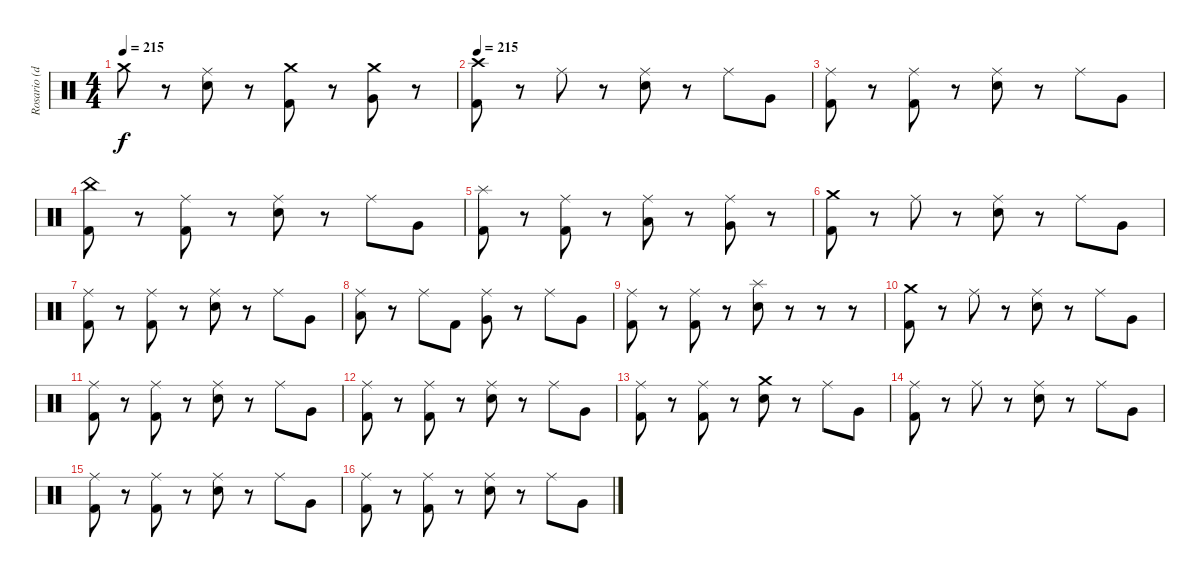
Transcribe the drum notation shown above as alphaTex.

\track ("Rosario (drum)" "Rosario (d") {instrument percussion}
\staff {score}
\articulation defaults
\ts (4 4)
\tempo 215
\clef neutral
\ks c "Crash medium (hit)".8{dy f}
r.8 ("Ride (middle)" "Electric Snare (hit)").8 r.8 ("Crash medium (hit)" "Kick (hit) 2").8 r.8 ("Crash medium (hit)" "Very Low Tom (hit)").8 r.8 |
\tempo 215
("Crash high (hit)" "Kick (hit) 2").8 r.8 "Ride (middle)".8 r.8 ("Ride (middle)" "Electric Snare (hit)").8 r.8 "Ride (middle)".8 "Very Low Tom (hit)".8 |
("Ride (middle)" "Kick (hit) 2").8 r.8 ("Ride (middle)" "Kick (hit) 2").8 r.8 ("Ride (middle)" "Electric Snare (hit)").8 r.8 "Ride (middle)".8 "Very Low Tom (hit)".8 |
("China (hit)" "Kick (hit) 2").8 r.8 ("Ride (middle)" "Kick (hit) 2").8 r.8 ("Ride (middle)" "Electric Snare (hit)").8 r.8 "Ride (middle)".8 "Very Low Tom (hit)".8 |
("Splash (hit)" "Kick (hit) 2").8 r.8 ("Ride (middle)" "Kick (hit) 2").8 r.8 ("Ride (middle)" "Low Tom (hit)").8 r.8 ("Ride (middle)" "Very Low Tom (hit)").8 r.8 |
("Crash medium (hit)" "Kick (hit) 2").8 r.8 "Ride (middle)".8 r.8 ("Ride (middle)" "Electric Snare (hit)").8 r.8 "Ride (middle)".8 "Very Low Tom (hit)".8 |
("Ride (middle)" "Kick (hit) 2").8 r.8 ("Ride (middle)" "Kick (hit) 2").8 r.8 ("Ride (middle)" "Electric Snare (hit)").8 r.8 "Ride (middle)".8 "Very Low Tom (hit)".8 |
("Ride (middle)" "Low Tom (hit)").8 r.8 "Ride (middle)".8 "Kick (hit) 2".8 ("Ride (middle)" "Very Low Tom (hit)").8 r.8 "Ride (middle)".8 "Very Low Tom (hit)".8 |
("Ride (middle)" "Kick (hit) 2").8 r.8 ("Ride (middle)" "Kick (hit) 2").8 r.8 ("Splash (hit)" "Electric Snare (hit)").8 r.8 r.8 r.8 |
("Crash medium (hit)" "Kick (hit) 2").8 r.8 "Ride (middle)".8 r.8 ("Ride (middle)" "Electric Snare (hit)").8 r.8 "Ride (middle)".8 "Very Low Tom (hit)".8 |
("Ride (middle)" "Kick (hit) 2").8 r.8 ("Ride (middle)" "Kick (hit) 2").8 r.8 ("Ride (middle)" "Electric Snare (hit)").8 r.8 "Ride (middle)".8 "Very Low Tom (hit)".8 |
("Ride (middle)" "Kick (hit) 2").8 r.8 ("Ride (middle)" "Kick (hit) 2").8 r.8 ("Ride (middle)" "Electric Snare (hit)").8 r.8 "Ride (middle)".8 "Very Low Tom (hit)".8 |
("Ride (middle)" "Kick (hit) 2").8 r.8 ("Ride (middle)" "Kick (hit) 2").8 r.8 ("Crash medium (hit)" "Electric Snare (hit)").8 r.8 "Ride (middle)".8 "Very Low Tom (hit)".8 |
("Ride (middle)" "Kick (hit) 2").8 r.8 "Ride (middle)".8 r.8 ("Ride (middle)" "Electric Snare (hit)").8 r.8 "Ride (middle)".8 "Very Low Tom (hit)".8 |
("Ride (middle)" "Kick (hit) 2").8 r.8 ("Ride (middle)" "Kick (hit) 2").8 r.8 ("Ride (middle)" "Electric Snare (hit)").8 r.8 "Ride (middle)".8 "Very Low Tom (hit)".8 |
("Ride (middle)" "Kick (hit) 2").8 r.8 ("Ride (middle)" "Kick (hit) 2").8 r.8 ("Ride (middle)" "Electric Snare (hit)").8 r.8 "Ride (middle)".8 "Very Low Tom (hit)".8
